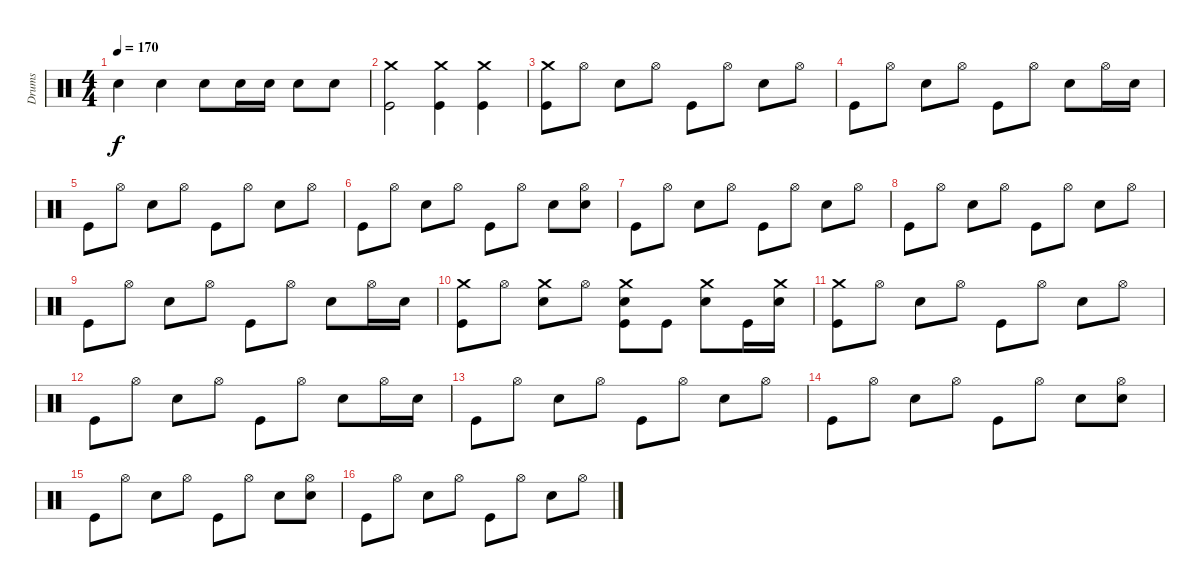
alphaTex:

\track ("Drums" "Drums") {instrument percussion}
\staff {score}
\articulation defaults
\ts (4 4)
\tempo 170
\clef neutral
\ks c "Hand Clap (hit)".4{dy f} "Hand Clap (hit)".4 "Hand Clap (hit)".8 "Hand Clap (hit)".16 "Hand Clap (hit)".16 "Hand Clap (hit)".8 "Hand Clap (hit)".8
|
("Crash medium (hit)" "Kick (hit)").2 ("Crash medium (hit)" "Kick (hit)").4 ("Crash medium (hit)" "Kick (hit)").4 |
("Crash medium (hit)" "Kick (hit)").8 "Hi-Hat (open)".8 "Electric Snare (hit)".8 "Hi-Hat (open)".8 "Kick (hit)".8 "Hi-Hat (open)".8 "Electric Snare (hit)".8 "Hi-Hat (open)".8 |
"Kick (hit)".8 "Hi-Hat (open)".8 "Electric Snare (hit)".8 "Hi-Hat (open)".8 "Kick (hit)".8 "Hi-Hat (open)".8 "Electric Snare (hit)".8 "Hi-Hat (open)".16 "Electric Snare (hit)".16 |
"Kick (hit)".8 "Hi-Hat (open)".8 "Electric Snare (hit)".8 "Hi-Hat (open)".8 "Kick (hit)".8 "Hi-Hat (open)".8 "Electric Snare (hit)".8 "Hi-Hat (open)".8 |
"Kick (hit)".8 "Hi-Hat (open)".8 "Electric Snare (hit)".8 "Hi-Hat (open)".8 "Kick (hit)".8 "Hi-Hat (open)".8 "Electric Snare (hit)".8 ("Electric Snare (hit)" "Hi-Hat (open)").8 |
"Kick (hit)".8 "Hi-Hat (open)".8 "Electric Snare (hit)".8 "Hi-Hat (open)".8 "Kick (hit)".8 "Hi-Hat (open)".8 "Electric Snare (hit)".8 "Hi-Hat (open)".8 |
"Kick (hit)".8 "Hi-Hat (open)".8 "Electric Snare (hit)".8 "Hi-Hat (open)".8 "Kick (hit)".8 "Hi-Hat (open)".8 "Electric Snare (hit)".8 "Hi-Hat (open)".8 |
"Kick (hit)".8 "Hi-Hat (open)".8 "Electric Snare (hit)".8 "Hi-Hat (open)".8 "Kick (hit)".8 "Hi-Hat (open)".8 "Electric Snare (hit)".8 "Hi-Hat (open)".16 "Electric Snare (hit)".16 |
("Crash medium (hit)" "Kick (hit)").8 "Hi-Hat (open)".8 ("Crash medium (hit)" "Electric Snare (hit)").8 "Hi-Hat (open)".8 ("Crash medium (hit)" "Electric Snare (hit)" "Kick (hit)").8 "Kick (hit)".8 ("Crash medium (hit)" "Electric Snare (hit)").8 "Kick (hit)".16 ("Crash medium (hit)" "Electric Snare (hit)").16 |
("Crash medium (hit)" "Kick (hit)").8 "Hi-Hat (open)".8 "Electric Snare (hit)".8 "Hi-Hat (open)".8 "Kick (hit)".8 "Hi-Hat (open)".8 "Electric Snare (hit)".8 "Hi-Hat (open)".8 |
"Kick (hit)".8 "Hi-Hat (open)".8 "Electric Snare (hit)".8 "Hi-Hat (open)".8 "Kick (hit)".8 "Hi-Hat (open)".8 "Electric Snare (hit)".8 "Hi-Hat (open)".16 "Electric Snare (hit)".16 |
"Kick (hit)".8 "Hi-Hat (open)".8 "Electric Snare (hit)".8 "Hi-Hat (open)".8 "Kick (hit)".8 "Hi-Hat (open)".8 "Electric Snare (hit)".8 "Hi-Hat (open)".8 |
"Kick (hit)".8 "Hi-Hat (open)".8 "Electric Snare (hit)".8 "Hi-Hat (open)".8 "Kick (hit)".8 "Hi-Hat (open)".8 "Electric Snare (hit)".8 ("Electric Snare (hit)" "Hi-Hat (open)").8 |
"Kick (hit)".8 "Hi-Hat (open)".8 "Electric Snare (hit)".8 "Hi-Hat (open)".8 "Kick (hit)".8 "Hi-Hat (open)".8 "Electric Snare (hit)".8 ("Electric Snare (hit)" "Hi-Hat (open)").8 |
"Kick (hit)".8 "Hi-Hat (open)".8 "Electric Snare (hit)".8 "Hi-Hat (open)".8 "Kick (hit)".8 "Hi-Hat (open)".8 "Electric Snare (hit)".8 "Hi-Hat (open)".8
